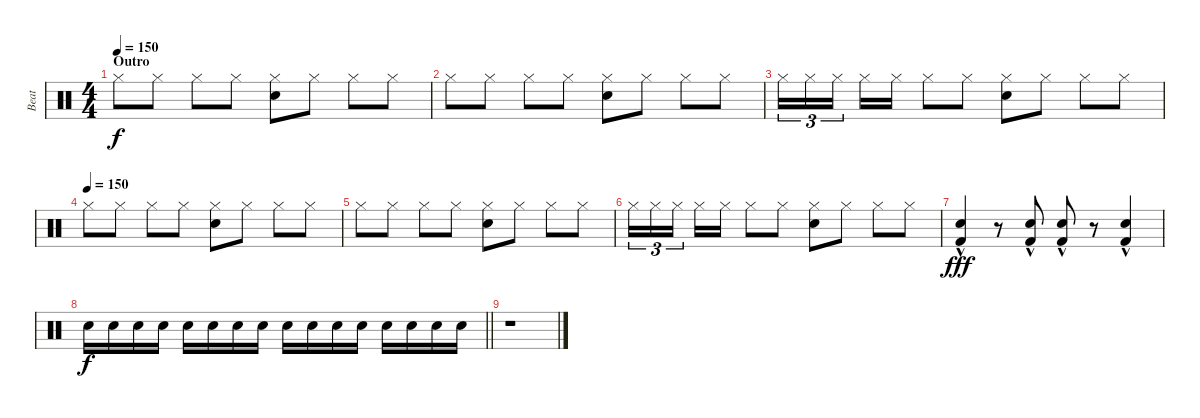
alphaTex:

\track ("Beat" "Beat") {instrument percussion}
\staff {score}
\articulation defaults
\ts (4 4)
\section ("" "Outro")
\tempo 150
\clef neutral
\ks c "Hi-Hat (closed)".8{dy f} "Hi-Hat (closed)".8 "Hi-Hat (closed)".8 "Hi-Hat (closed)".8
("Hi-Hat (closed)" "Hand Clap (hit)").8 "Hi-Hat (closed)".8 "Hi-Hat (closed)".8 "Hi-Hat (closed)".8 |
"Hi-Hat (closed)".8 "Hi-Hat (closed)".8 "Hi-Hat (closed)".8 "Hi-Hat (closed)".8 ("Hi-Hat (closed)" "Hand Clap (hit)").8 "Hi-Hat (closed)".8 "Hi-Hat (closed)".8 "Hi-Hat (closed)".8 |
"Hi-Hat (closed)".16{tu (3 2)} "Hi-Hat (closed)".16{tu (3 2)} "Hi-Hat (closed)".16{tu (3 2) beam splitsecondary} "Hi-Hat (closed)".16 "Hi-Hat (closed)".16 "Hi-Hat (closed)".8 "Hi-Hat (closed)".8 ("Hi-Hat (closed)" "Hand Clap (hit)").8 "Hi-Hat (closed)".8 "Hi-Hat (closed)".8 "Hi-Hat (closed)".8 |
\tempo (150)
"Hi-Hat (closed)".8 "Hi-Hat (closed)".8 "Hi-Hat (closed)".8 "Hi-Hat (closed)".8 ("Hi-Hat (closed)" "Hand Clap (hit)").8 "Hi-Hat (closed)".8 "Hi-Hat (closed)".8 "Hi-Hat (closed)".8 |
"Hi-Hat (closed)".8 "Hi-Hat (closed)".8 "Hi-Hat (closed)".8 "Hi-Hat (closed)".8 ("Hi-Hat (closed)" "Hand Clap (hit)").8 "Hi-Hat (closed)".8 "Hi-Hat (closed)".8 "Hi-Hat (closed)".8 |
"Hi-Hat (closed)".16{tu (3 2)} "Hi-Hat (closed)".16{tu (3 2)} "Hi-Hat (closed)".16{tu (3 2) beam splitsecondary} "Hi-Hat (closed)".16 "Hi-Hat (closed)".16 "Hi-Hat (closed)".8 "Hi-Hat (closed)".8 ("Hi-Hat (closed)" "Hand Clap (hit)").8 "Hi-Hat (closed)".8 "Hi-Hat (closed)".8 "Hi-Hat (closed)".8 |
("Snare (hit) 2" "Kick (hit) 2"{hac}).4{dy fff} r.8 ("Snare (hit) 2" "Kick (hit) 2"{hac}).8 ("Snare (hit) 2" "Kick (hit) 2"{hac}).8 r.8 ("Snare (hit) 2" "Kick (hit) 2"{hac}).4 |
\barLineRight lightlight "Snare (hit) 2".16{dy f} "Snare (hit) 2".16 "Snare (hit) 2".16 "Snare (hit) 2".16 "Snare (hit) 2".16 "Snare (hit) 2".16 "Snare (hit) 2".16 "Snare (hit) 2".16 "Snare (hit) 2".16 "Snare (hit) 2".16 "Snare (hit) 2".16 "Snare (hit) 2".16 "Snare (hit) 2".16 "Snare (hit) 2".16 "Snare (hit) 2".16 "Snare (hit) 2".16
|
r.1
